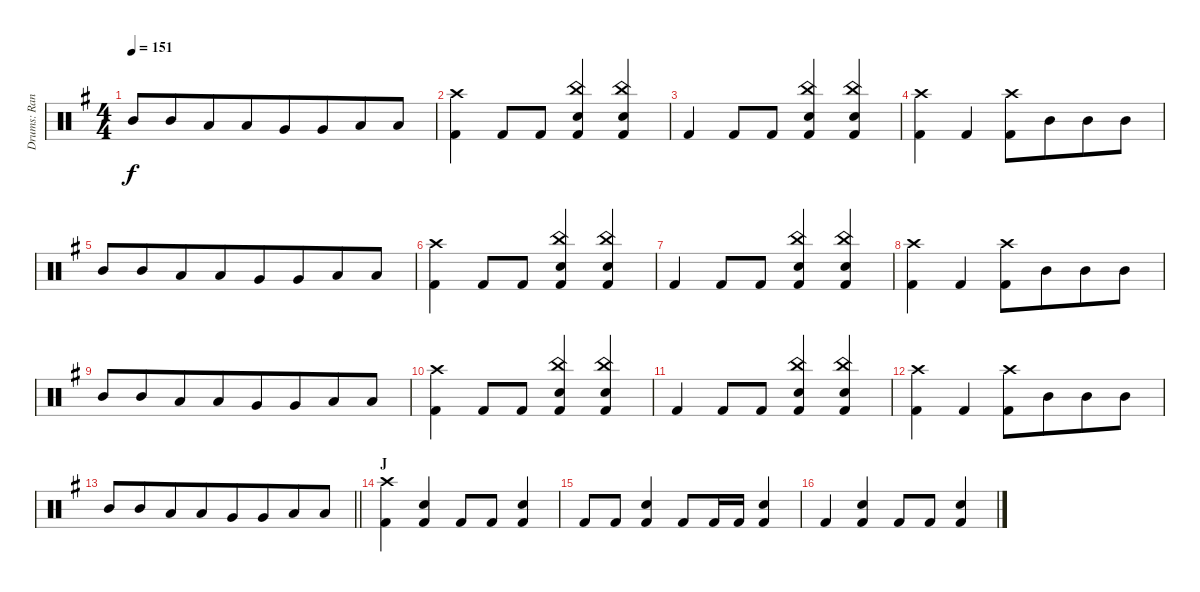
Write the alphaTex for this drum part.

\track ("Drums: Randy" "Drums: Ran") {instrument percussion}
\staff {score}
\articulation defaults
\ts (4 4)
\tempo 151
\clef neutral
\ks g "Mid Tom (hit)".8{dy f} "Mid Tom (hit)".8{beam merge} "Low Tom (hit)".8 "Low Tom (hit)".8{beam merge} "Very Low Tom (hit)".8 "Very Low Tom (hit)".8{beam merge} "Low Floor Tom (hit)".8 "Low Floor Tom (hit)".8
|
("Crash high (hit)" "Kick (hit) 2").4 "Kick (hit) 2".8 "Kick (hit) 2".8 ("China (hit)" "Snare (hit) 2" "Kick (hit) 2").4 ("China (hit)" "Snare (hit) 2" "Kick (hit) 2").4 |
"Kick (hit) 2".4 "Kick (hit) 2".8 "Kick (hit) 2".8 ("China (hit)" "Snare (hit) 2" "Kick (hit) 2").4 ("China (hit)" "Snare (hit) 2" "Kick (hit) 2").4 |
("Crash high (hit)" "Kick (hit) 2").4 "Kick (hit) 2".4 ("Crash high (hit)" "Kick (hit) 2").8 "Mid Tom (hit)".8{beam merge} "Mid Tom (hit)".8 "Mid Tom (hit)".8 |
"Mid Tom (hit)".8 "Mid Tom (hit)".8{beam merge} "Low Tom (hit)".8 "Low Tom (hit)".8{beam merge} "Very Low Tom (hit)".8 "Very Low Tom (hit)".8{beam merge} "Low Floor Tom (hit)".8 "Low Floor Tom (hit)".8 |
("Crash high (hit)" "Kick (hit) 2").4 "Kick (hit) 2".8 "Kick (hit) 2".8 ("China (hit)" "Snare (hit) 2" "Kick (hit) 2").4 ("China (hit)" "Snare (hit) 2" "Kick (hit) 2").4 |
"Kick (hit) 2".4 "Kick (hit) 2".8 "Kick (hit) 2".8 ("China (hit)" "Snare (hit) 2" "Kick (hit) 2").4 ("China (hit)" "Snare (hit) 2" "Kick (hit) 2").4 |
("Crash high (hit)" "Kick (hit) 2").4 "Kick (hit) 2".4 ("Crash high (hit)" "Kick (hit) 2").8 "Mid Tom (hit)".8{beam merge} "Mid Tom (hit)".8 "Mid Tom (hit)".8 |
"Mid Tom (hit)".8 "Mid Tom (hit)".8{beam merge} "Low Tom (hit)".8 "Low Tom (hit)".8{beam merge} "Very Low Tom (hit)".8 "Very Low Tom (hit)".8{beam merge} "Low Floor Tom (hit)".8 "Low Floor Tom (hit)".8 |
("Crash high (hit)" "Kick (hit) 2").4 "Kick (hit) 2".8 "Kick (hit) 2".8 ("China (hit)" "Snare (hit) 2" "Kick (hit) 2").4 ("China (hit)" "Snare (hit) 2" "Kick (hit) 2").4 |
"Kick (hit) 2".4 "Kick (hit) 2".8 "Kick (hit) 2".8 ("China (hit)" "Snare (hit) 2" "Kick (hit) 2").4 ("China (hit)" "Snare (hit) 2" "Kick (hit) 2").4 |
("Crash high (hit)" "Kick (hit) 2").4 "Kick (hit) 2".4 ("Crash high (hit)" "Kick (hit) 2").8 "Mid Tom (hit)".8{beam merge} "Mid Tom (hit)".8 "Mid Tom (hit)".8 |
\barLineRight lightlight "Mid Tom (hit)".8 "Mid Tom (hit)".8{beam merge} "Low Tom (hit)".8 "Low Tom (hit)".8{beam merge} "Very Low Tom (hit)".8 "Very Low Tom (hit)".8{beam merge} "Low Floor Tom (hit)".8 "Low Floor Tom (hit)".8
|
\section ("" "J")
("Crash high (hit)" "Kick (hit) 2").4 ("Snare (hit) 2" "Kick (hit) 2").4 "Kick (hit) 2".8 "Kick (hit) 2".8 ("Snare (hit) 2" "Kick (hit) 2").4 |
"Kick (hit) 2".8 "Kick (hit) 2".8 ("Snare (hit) 2" "Kick (hit) 2").4 "Kick (hit) 2".8 "Kick (hit) 2".16 "Kick (hit) 2".16 ("Snare (hit) 2" "Kick (hit) 2").4 |
"Kick (hit) 2".4 ("Snare (hit) 2" "Kick (hit) 2").4 "Kick (hit) 2".8 "Kick (hit) 2".8 ("Snare (hit) 2" "Kick (hit) 2").4
